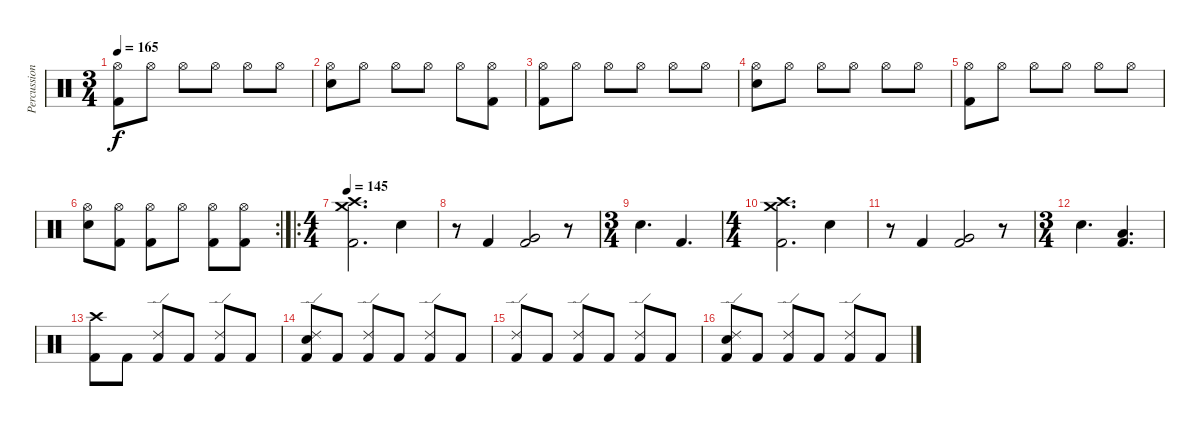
\track ("Percussion" "Percussion") {instrument percussion}
\staff {score}
\articulation defaults
\ts (3 4)
\tempo 165
\clef neutral
\ks c
("Hi-Hat (open)" "Kick (hit) 2").8{dy f} "Hi-Hat (open)".8 "Hi-Hat (open)".8 "Hi-Hat (open)".8 "Hi-Hat (open)".8 "Hi-Hat (open)".8 |
("Hi-Hat (open)" "Electric Snare (hit)").8 "Hi-Hat (open)".8 "Hi-Hat (open)".8 "Hi-Hat (open)".8 "Hi-Hat (open)".8 ("Hi-Hat (open)" "Kick (hit) 2").8 |
("Hi-Hat (open)" "Kick (hit) 2").8 "Hi-Hat (open)".8 "Hi-Hat (open)".8 "Hi-Hat (open)".8 "Hi-Hat (open)".8 "Hi-Hat (open)".8 |
("Hi-Hat (open)" "Electric Snare (hit)").8 "Hi-Hat (open)".8 "Hi-Hat (open)".8 "Hi-Hat (open)".8 "Hi-Hat (open)".8 "Hi-Hat (open)".8 |
("Hi-Hat (open)" "Kick (hit) 2").8 "Hi-Hat (open)".8 "Hi-Hat (open)".8 "Hi-Hat (open)".8 "Hi-Hat (open)".8 "Hi-Hat (open)".8 |
\rc 2
("Hi-Hat (open)" "Electric Snare (hit)").8 ("Hi-Hat (open)" "Kick (hit) 2").8 ("Hi-Hat (open)" "Kick (hit) 2").8 "Hi-Hat (open)".8 ("Hi-Hat (open)" "Kick (hit) 2").8 ("Hi-Hat (open)" "Kick (hit) 2").8 |
\ro
\ts (4 4)
\tempo 145
("Crash high (hit)" "Crash medium (hit)" "Kick (hit) 2").2{d} "Electric Snare (hit)".4 |
r.8 "Kick (hit) 2".4 ("Very Low Tom (hit)" "Kick (hit) 2").2 r.8 |
\ts (3 4)
"Electric Snare (hit)".4{d} "Kick (hit) 2".4{d} |
\ts (4 4)
("Crash high (hit)" "Crash medium (hit)" "Kick (hit) 2").2{d} "Electric Snare (hit)".4 |
r.8 "Kick (hit) 2".4 ("Very Low Tom (hit)" "Kick (hit) 2").2 r.8 |
\ts (3 4)
"Electric Snare (hit)".4{d} ("Low Tom (hit)" "Kick (hit) 2").4{d} |
("Crash high (hit)" "Kick (hit) 2").8 "Kick (hit) 2".8 ("Ride (edge) 2" "Kick (hit) 2").8 "Kick (hit) 2".8 ("Ride (edge) 2" "Kick (hit) 2").8 "Kick (hit) 2".8 |
("Ride (edge) 2" "Electric Snare (hit)" "Kick (hit) 2").8 "Kick (hit) 2".8 ("Ride (edge) 2" "Kick (hit) 2").8 "Kick (hit) 2".8 ("Ride (edge) 2" "Kick (hit) 2").8 "Kick (hit) 2".8 |
("Ride (edge) 2" "Kick (hit) 2").8 "Kick (hit) 2".8 ("Ride (edge) 2" "Kick (hit) 2").8 "Kick (hit) 2".8 ("Ride (edge) 2" "Kick (hit) 2").8 "Kick (hit) 2".8 |
("Ride (edge) 2" "Electric Snare (hit)" "Kick (hit) 2").8 "Kick (hit) 2".8 ("Ride (edge) 2" "Kick (hit) 2").8 "Kick (hit) 2".8 ("Ride (edge) 2" "Kick (hit) 2").8 "Kick (hit) 2".8
